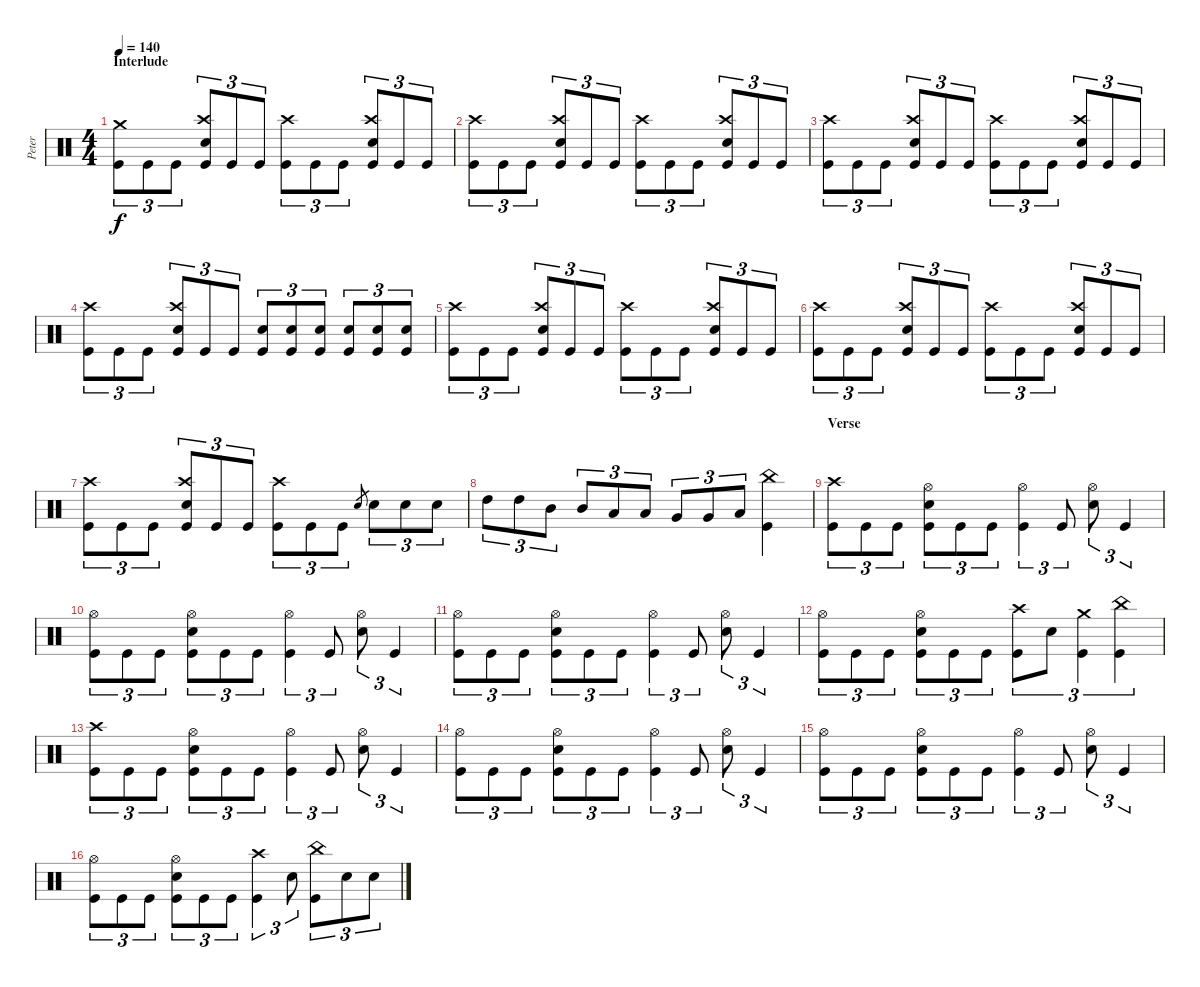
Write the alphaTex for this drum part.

\track ("Peter" "Peter") {instrument percussion}
\staff {score}
\articulation defaults
\ts (4 4)
\section ("" "Interlude")
\tempo 140
\clef neutral
\ks c
("Crash medium (hit)" "Kick (hit)").8{tu (3 2) dy f} "Kick (hit)".8{tu (3 2)} "Kick (hit)".8{tu (3 2)} ("Crash high (hit)" "Electric Snare (hit)" "Kick (hit)").8{tu (3 2)} "Kick (hit)".8{tu (3 2)} "Kick (hit)".8{tu (3 2)} ("Crash high (hit)" "Kick (hit)").8{tu (3 2)} "Kick (hit)".8{tu (3 2)} "Kick (hit)".8{tu (3 2)} ("Crash high (hit)" "Electric Snare (hit)" "Kick (hit)").8{tu (3 2)} "Kick (hit)".8{tu (3 2)} "Kick (hit)".8{tu (3 2)} |
("Crash high (hit)" "Kick (hit)").8{tu (3 2)} "Kick (hit)".8{tu (3 2)} "Kick (hit)".8{tu (3 2)} ("Crash high (hit)" "Electric Snare (hit)" "Kick (hit)").8{tu (3 2)} "Kick (hit)".8{tu (3 2)} "Kick (hit)".8{tu (3 2)} ("Crash high (hit)" "Kick (hit)").8{tu (3 2)} "Kick (hit)".8{tu (3 2)} "Kick (hit)".8{tu (3 2)} ("Crash high (hit)" "Electric Snare (hit)" "Kick (hit)").8{tu (3 2)} "Kick (hit)".8{tu (3 2)} "Kick (hit)".8{tu (3 2)} |
("Crash high (hit)" "Kick (hit)").8{tu (3 2)} "Kick (hit)".8{tu (3 2)} "Kick (hit)".8{tu (3 2)} ("Crash high (hit)" "Electric Snare (hit)" "Kick (hit)").8{tu (3 2)} "Kick (hit)".8{tu (3 2)} "Kick (hit)".8{tu (3 2)} ("Crash high (hit)" "Kick (hit)").8{tu (3 2)} "Kick (hit)".8{tu (3 2)} "Kick (hit)".8{tu (3 2)} ("Crash high (hit)" "Electric Snare (hit)" "Kick (hit)").8{tu (3 2)} "Kick (hit)".8{tu (3 2)} "Kick (hit)".8{tu (3 2)} |
("Crash high (hit)" "Kick (hit)").8{tu (3 2)} "Kick (hit)".8{tu (3 2)} "Kick (hit)".8{tu (3 2)} ("Crash high (hit)" "Electric Snare (hit)" "Kick (hit)").8{tu (3 2)} "Kick (hit)".8{tu (3 2)} "Kick (hit)".8{tu (3 2)} ("Electric Snare (hit)" "Kick (hit)").8{tu (3 2)} ("Electric Snare (hit)" "Kick (hit)").8{tu (3 2)} ("Electric Snare (hit)" "Kick (hit)").8{tu (3 2)} ("Electric Snare (hit)" "Kick (hit)").8{tu (3 2)} ("Electric Snare (hit)" "Kick (hit)").8{tu (3 2)} ("Electric Snare (hit)" "Kick (hit)").8{tu (3 2)} |
("Crash high (hit)" "Kick (hit)").8{tu (3 2)} "Kick (hit)".8{tu (3 2)} "Kick (hit)".8{tu (3 2)} ("Crash high (hit)" "Electric Snare (hit)" "Kick (hit)").8{tu (3 2)} "Kick (hit)".8{tu (3 2)} "Kick (hit)".8{tu (3 2)} ("Crash high (hit)" "Kick (hit)").8{tu (3 2)} "Kick (hit)".8{tu (3 2)} "Kick (hit)".8{tu (3 2)} ("Crash high (hit)" "Electric Snare (hit)" "Kick (hit)").8{tu (3 2)} "Kick (hit)".8{tu (3 2)} "Kick (hit)".8{tu (3 2)} |
("Crash high (hit)" "Kick (hit)").8{tu (3 2)} "Kick (hit)".8{tu (3 2)} "Kick (hit)".8{tu (3 2)} ("Crash high (hit)" "Electric Snare (hit)" "Kick (hit)").8{tu (3 2)} "Kick (hit)".8{tu (3 2)} "Kick (hit)".8{tu (3 2)} ("Crash high (hit)" "Kick (hit)").8{tu (3 2)} "Kick (hit)".8{tu (3 2)} "Kick (hit)".8{tu (3 2)} ("Crash high (hit)" "Electric Snare (hit)" "Kick (hit)").8{tu (3 2)} "Kick (hit)".8{tu (3 2)} "Kick (hit)".8{tu (3 2)} |
("Crash high (hit)" "Kick (hit)").8{tu (3 2)} "Kick (hit)".8{tu (3 2)} "Kick (hit)".8{tu (3 2)} ("Crash high (hit)" "Electric Snare (hit)" "Kick (hit)").8{tu (3 2)} "Kick (hit)".8{tu (3 2)} "Kick (hit)".8{tu (3 2)} ("Crash high (hit)" "Kick (hit)").8{tu (3 2)} "Kick (hit)".8{tu (3 2)} "Kick (hit)".8{tu (3 2)} "Electric Snare (hit)".8{gr} "Electric Snare (hit)".8{tu (3 2)} "Electric Snare (hit)".8{tu (3 2)} "Electric Snare (hit)".8{tu (3 2)} |
"High Tom (hit)".8{tu (3 2)} "High Tom (hit)".8{tu (3 2)} "Mid Tom (hit)".8{tu (3 2)} "Mid Tom (hit)".8{tu (3 2)} "Low Tom (hit)".8{tu (3 2)} "Low Tom (hit)".8{tu (3 2)} "Very Low Tom (hit)".8{tu (3 2)} "Very Low Tom (hit)".8{tu (3 2)} "Low Floor Tom (hit)".8{tu (3 2)} ("China (hit)" "Kick (hit)").4 |
\section ("" "Verse")
("Crash high (hit)" "Kick (hit)").8{tu (3 2)} "Kick (hit)".8{tu (3 2)} "Kick (hit)".8{tu (3 2)} ("Hi-Hat (open)" "Electric Snare (hit)" "Kick (hit)").8{tu (3 2)} "Kick (hit)".8{tu (3 2)} "Kick (hit)".8{tu (3 2)} ("Hi-Hat (open)" "Kick (hit)").4{tu (3 2)} "Kick (hit)".8{tu (3 2)} ("Hi-Hat (open)" "Electric Snare (hit)").8{tu (3 2)} "Kick (hit)".4{tu (3 2)} |
("Hi-Hat (open)" "Kick (hit)").8{tu (3 2)} "Kick (hit)".8{tu (3 2)} "Kick (hit)".8{tu (3 2)} ("Hi-Hat (open)" "Electric Snare (hit)" "Kick (hit)").8{tu (3 2)} "Kick (hit)".8{tu (3 2)} "Kick (hit)".8{tu (3 2)} ("Hi-Hat (open)" "Kick (hit)").4{tu (3 2)} "Kick (hit)".8{tu (3 2)} ("Hi-Hat (open)" "Electric Snare (hit)").8{tu (3 2)} "Kick (hit)".4{tu (3 2)} |
("Hi-Hat (open)" "Kick (hit)").8{tu (3 2)} "Kick (hit)".8{tu (3 2)} "Kick (hit)".8{tu (3 2)} ("Hi-Hat (open)" "Electric Snare (hit)" "Kick (hit)").8{tu (3 2)} "Kick (hit)".8{tu (3 2)} "Kick (hit)".8{tu (3 2)} ("Hi-Hat (open)" "Kick (hit)").4{tu (3 2)} "Kick (hit)".8{tu (3 2)} ("Hi-Hat (open)" "Electric Snare (hit)").8{tu (3 2)} "Kick (hit)".4{tu (3 2)} |
("Hi-Hat (open)" "Kick (hit)").8{tu (3 2)} "Kick (hit)".8{tu (3 2)} "Kick (hit)".8{tu (3 2)} ("Hi-Hat (open)" "Electric Snare (hit)" "Kick (hit)").8{tu (3 2)} "Kick (hit)".8{tu (3 2)} "Kick (hit)".8{tu (3 2)} ("Crash high (hit)" "Kick (hit)").8{tu (3 2)} "Electric Snare (hit)".8{tu (3 2)} ("Crash medium (hit)" "Kick (hit)").4{tu (3 2)} ("China (hit)" "Kick (hit)").4{tu (3 2)} |
("Crash high (hit)" "Kick (hit)").8{tu (3 2)} "Kick (hit)".8{tu (3 2)} "Kick (hit)".8{tu (3 2)} ("Hi-Hat (open)" "Electric Snare (hit)" "Kick (hit)").8{tu (3 2)} "Kick (hit)".8{tu (3 2)} "Kick (hit)".8{tu (3 2)} ("Hi-Hat (open)" "Kick (hit)").4{tu (3 2)} "Kick (hit)".8{tu (3 2)} ("Hi-Hat (open)" "Electric Snare (hit)").8{tu (3 2)} "Kick (hit)".4{tu (3 2)} |
("Hi-Hat (open)" "Kick (hit)").8{tu (3 2)} "Kick (hit)".8{tu (3 2)} "Kick (hit)".8{tu (3 2)} ("Hi-Hat (open)" "Electric Snare (hit)" "Kick (hit)").8{tu (3 2)} "Kick (hit)".8{tu (3 2)} "Kick (hit)".8{tu (3 2)} ("Hi-Hat (open)" "Kick (hit)").4{tu (3 2)} "Kick (hit)".8{tu (3 2)} ("Hi-Hat (open)" "Electric Snare (hit)").8{tu (3 2)} "Kick (hit)".4{tu (3 2)} |
("Hi-Hat (open)" "Kick (hit)").8{tu (3 2)} "Kick (hit)".8{tu (3 2)} "Kick (hit)".8{tu (3 2)} ("Hi-Hat (open)" "Electric Snare (hit)" "Kick (hit)").8{tu (3 2)} "Kick (hit)".8{tu (3 2)} "Kick (hit)".8{tu (3 2)} ("Hi-Hat (open)" "Kick (hit)").4{tu (3 2)} "Kick (hit)".8{tu (3 2)} ("Hi-Hat (open)" "Electric Snare (hit)").8{tu (3 2)} "Kick (hit)".4{tu (3 2)} |
("Hi-Hat (open)" "Kick (hit)").8{tu (3 2)} "Kick (hit)".8{tu (3 2)} "Kick (hit)".8{tu (3 2)} ("Hi-Hat (open)" "Electric Snare (hit)" "Kick (hit)").8{tu (3 2)} "Kick (hit)".8{tu (3 2)} "Kick (hit)".8{tu (3 2)} ("Crash high (hit)" "Kick (hit)").4{tu (3 2)} "Electric Snare (hit)".8{tu (3 2)} ("China (hit)" "Kick (hit)").8{tu (3 2)} "Electric Snare (hit)".8{tu (3 2)} "Electric Snare (hit)".8{tu (3 2)}
